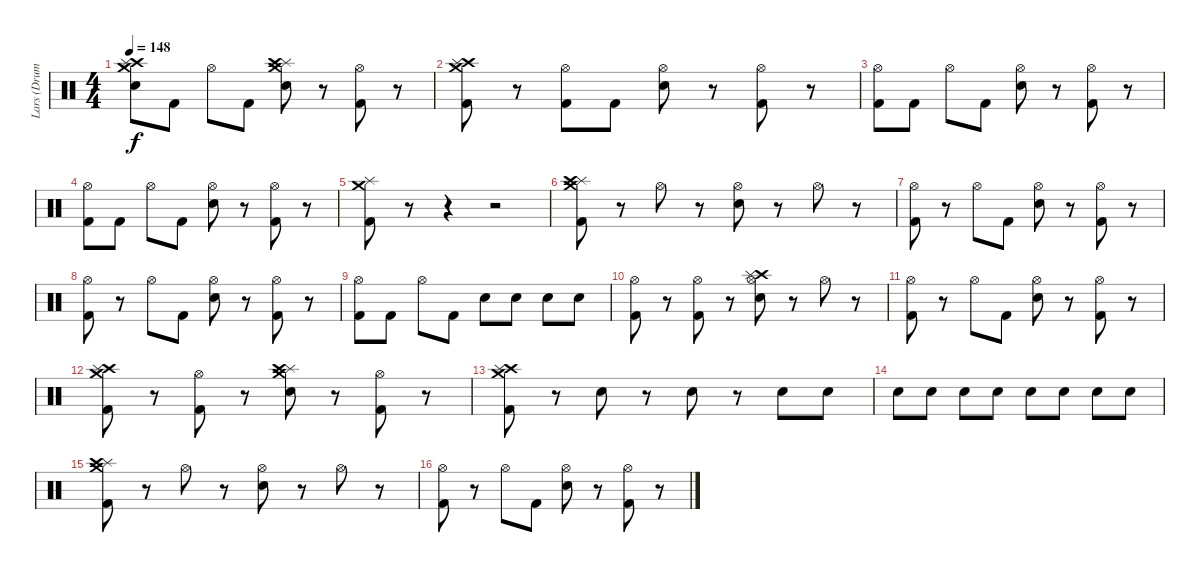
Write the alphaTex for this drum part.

\track ("Lars (Drums)" "Lars (Drum") {instrument percussion}
\staff {score}
\articulation defaults
\ts (4 4)
\tempo 148
\clef neutral
\ks c
("Crash medium (hit)" "Crash high (hit)" "Splash (hit)" "Snare (hit) 2").8{dy f} "Kick (hit) 2".8 "Hi-Hat (open)".8 "Kick (hit) 2".8 ("Crash medium (hit)" "Splash (hit)" "Crash high (hit)" "Snare (hit) 2").8 r.8 ("Hi-Hat (open)" "Kick (hit) 2").8 r.8 |
("Crash high (hit)" "Splash (hit)" "Crash medium (hit)" "Kick (hit) 2").8 r.8 ("Hi-Hat (open)" "Kick (hit) 2").8 "Kick (hit) 2".8 ("Hi-Hat (open)" "Snare (hit) 2").8 r.8 ("Hi-Hat (open)" "Kick (hit) 2").8 r.8 |
("Hi-Hat (open)" "Kick (hit) 2").8 "Kick (hit) 2".8 "Hi-Hat (open)".8 "Kick (hit) 2".8 ("Hi-Hat (open)" "Snare (hit) 2").8 r.8 ("Hi-Hat (open)" "Kick (hit) 2").8 r.8 |
("Hi-Hat (open)" "Kick (hit) 2").8 "Kick (hit) 2".8 "Hi-Hat (open)".8 "Kick (hit) 2".8 ("Hi-Hat (open)" "Snare (hit) 2").8 r.8 ("Hi-Hat (open)" "Kick (hit) 2").8 r.8 |
("Kick (hit) 2" "Splash (hit)" "Crash medium (hit)").8 r.8 r.4 r.2 |
("Splash (hit)" "Crash medium (hit)" "Crash high (hit)" "Kick (hit) 2").8 r.8 "Hi-Hat (open)".8 r.8 ("Hi-Hat (open)" "Snare (hit) 2").8 r.8 "Hi-Hat (open)".8 r.8 |
("Hi-Hat (open)" "Kick (hit) 2").8 r.8 "Hi-Hat (open)".8 "Kick (hit) 2".8 ("Hi-Hat (open)" "Snare (hit) 2").8 r.8 ("Hi-Hat (open)" "Kick (hit) 2").8 r.8 |
("Hi-Hat (open)" "Kick (hit) 2").8 r.8 "Hi-Hat (open)".8 "Kick (hit) 2".8 ("Hi-Hat (open)" "Snare (hit) 2").8 r.8 ("Hi-Hat (open)" "Kick (hit) 2").8 r.8 |
("Hi-Hat (open)" "Kick (hit) 2").8 "Kick (hit) 2".8 "Hi-Hat (open)".8 "Kick (hit) 2".8 "Snare (hit) 2".8 "Snare (hit) 2".8 "Snare (hit) 2".8 "Snare (hit) 2".8 |
("Hi-Hat (open)" "Kick (hit) 2").8 r.8 ("Hi-Hat (open)" "Kick (hit) 2").8 r.8 ("Crash high (hit)" "Splash (hit)" "Hi-Hat (open)" "Snare (hit) 2").8 r.8 "Hi-Hat (open)".8 r.8 |
("Hi-Hat (open)" "Kick (hit) 2").8 r.8 "Hi-Hat (open)".8 "Kick (hit) 2".8 ("Hi-Hat (open)" "Snare (hit) 2").8 r.8 ("Hi-Hat (open)" "Kick (hit) 2").8 r.8 |
("Crash medium (hit)" "Crash high (hit)" "Splash (hit)" "Kick (hit) 2").8 r.8 ("Kick (hit) 2" "Hi-Hat (open)").8 r.8 ("Crash medium (hit)" "Splash (hit)" "Crash high (hit)" "Snare (hit) 2").8 r.8 ("Kick (hit) 2" "Hi-Hat (open)").8 r.8 |
("Crash high (hit)" "Splash (hit)" "Crash medium (hit)" "Kick (hit) 2").8 r.8 "Snare (hit) 2".8 r.8 "Snare (hit) 2".8 r.8 "Snare (hit) 2".8 "Snare (hit) 2".8 |
"Snare (hit) 2".8 "Snare (hit) 2".8 "Snare (hit) 2".8 "Snare (hit) 2".8 "Snare (hit) 2".8 "Snare (hit) 2".8 "Snare (hit) 2".8 "Snare (hit) 2".8 |
("Splash (hit)" "Crash medium (hit)" "Crash high (hit)" "Kick (hit) 2").8 r.8 "Hi-Hat (open)".8 r.8 ("Hi-Hat (open)" "Snare (hit) 2").8 r.8 "Hi-Hat (open)".8 r.8 |
("Hi-Hat (open)" "Kick (hit) 2").8 r.8 "Hi-Hat (open)".8 "Kick (hit) 2".8 ("Hi-Hat (open)" "Snare (hit) 2").8 r.8 ("Hi-Hat (open)" "Kick (hit) 2").8 r.8
